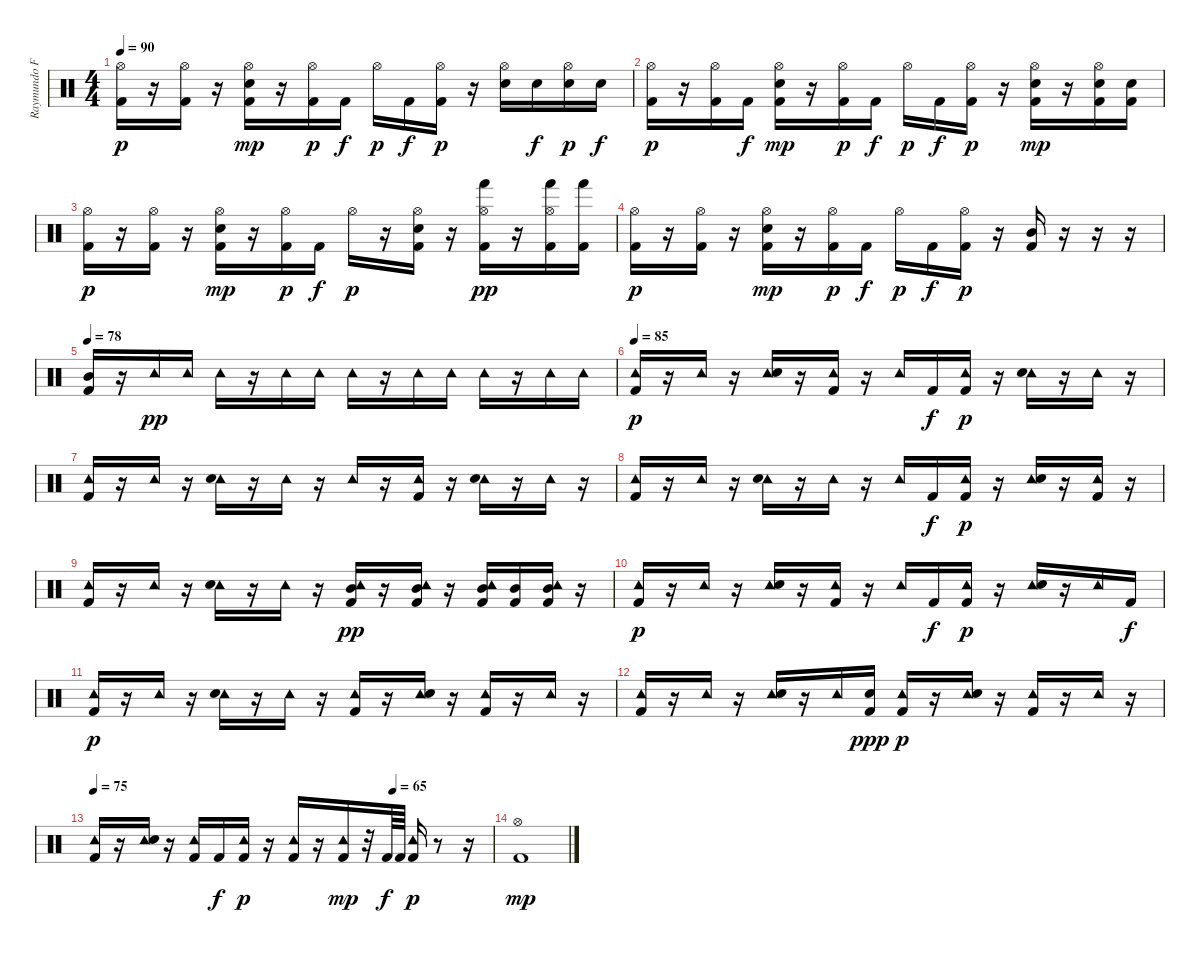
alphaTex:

\track ("Raymundo Fajardo (Bateria)" "Raymundo F") {instrument percussion}
\staff {score}
\articulation defaults
\ts (4 4)
\tempo 90
\clef neutral
\ks c
("Hi-Hat (open)" "Kick (hit) 2").16{dy p} r.16 ("Hi-Hat (open)" "Kick (hit) 2").16 r.16 ("Hi-Hat (open)" "Kick (hit) 2" "Electric Snare (hit)").16{dy mp} r.16 ("Hi-Hat (open)" "Kick (hit) 2").16{dy p} "Kick (hit) 2".16{dy f} "Hi-Hat (open)".16{dy p} "Kick (hit) 2".16{dy f} ("Hi-Hat (open)" "Kick (hit) 2").16{dy p} r.16 ("Hi-Hat (open)" "Electric Snare (hit)").16 "Electric Snare (hit)".16{dy f} ("Hi-Hat (open)" "Electric Snare (hit)").16{dy p} "Electric Snare (hit)".16{dy f} |
("Hi-Hat (open)" "Kick (hit) 2").16{dy p} r.16 ("Hi-Hat (open)" "Kick (hit) 2").16 "Kick (hit) 2".16{dy f} ("Hi-Hat (open)" "Kick (hit) 2" "Electric Snare (hit)").16{dy mp} r.16 ("Hi-Hat (open)" "Kick (hit) 2").16{dy p} "Kick (hit) 2".16{dy f} "Hi-Hat (open)".16{dy p} "Kick (hit) 2".16{dy f} ("Hi-Hat (open)" "Kick (hit) 2").16{dy p} r.16 ("Hi-Hat (open)" "Electric Snare (hit)" "Kick (hit) 2").16{dy mp} r.16 ("Hi-Hat (open)" "Electric Snare (hit)" "Kick (hit) 2").16 ("Electric Snare (hit)" "Kick (hit) 2").16 |
("Hi-Hat (open)" "Kick (hit) 2").16{dy p} r.16 ("Hi-Hat (open)" "Kick (hit) 2").16 r.16 ("Hi-Hat (open)" "Kick (hit) 2" "Electric Snare (hit)").16{dy mp} r.16 ("Hi-Hat (open)" "Kick (hit) 2").16{dy p} "Kick (hit) 2".16{dy f} "Hi-Hat (open)".16{dy p} r.16 ("Hi-Hat (open)" "Kick (hit) 2" "Electric Snare (hit)").16 r.16 ("Hi-Hat (open)" "Hand (hit)" "Kick (hit) 2").16{dy pp} r.16 ("Hi-Hat (open)" "Hand (hit)" "Kick (hit) 2").16 ("Hand (hit)" "Kick (hit) 2").16 |
("Hi-Hat (open)" "Kick (hit) 2").16{dy p} r.16 ("Hi-Hat (open)" "Kick (hit) 2").16 r.16 ("Hi-Hat (open)" "Kick (hit) 2" "Electric Snare (hit)").16{dy mp} r.16 ("Hi-Hat (open)" "Kick (hit) 2").16{dy p} "Kick (hit) 2".16{dy f} "Hi-Hat (open)".16{dy p} "Kick (hit) 2".16{dy f} ("Hi-Hat (open)" "Kick (hit) 2").16{dy p} r.16 ("Mid Tom (hit)" "Kick (hit) 2").16 r.16 r.16 r.16 |
\tempo 78
("Mid Tom (hit)" "Kick (hit) 2").16 r.16 "Tambourine (hit)".16{dy pp} "Tambourine (hit)".16 "Tambourine (hit)".16 r.16 "Tambourine (hit)".16 "Tambourine (hit)".16 "Tambourine (hit)".16 r.16 "Tambourine (hit)".16 "Tambourine (hit)".16 "Tambourine (hit)".16 r.16 "Tambourine (hit)".16 "Tambourine (hit)".16 |
\tempo 85
("Tambourine (hit)" "Kick (hit) 2").16{dy p} r.16 "Tambourine (hit)".16 r.16 ("Tambourine (hit)" "Electric Snare (hit)").16 r.16 ("Tambourine (hit)" "Kick (hit) 2").16 r.16 "Tambourine (hit)".16 "Kick (hit) 2".16{dy f} ("Tambourine (hit)" "Kick (hit) 2").16{dy p} r.16 ("Tambourine (hit)" "Electric Snare (hit)").16 r.16 "Tambourine (hit)".16 r.16 |
("Tambourine (hit)" "Kick (hit) 2").16 r.16 "Tambourine (hit)".16 r.16 ("Tambourine (hit)" "Electric Snare (hit)").16 r.16 "Tambourine (hit)".16 r.16 "Tambourine (hit)".16 r.16 ("Tambourine (hit)" "Kick (hit) 2").16 r.16 ("Tambourine (hit)" "Electric Snare (hit)").16 r.16 "Tambourine (hit)".16 r.16 |
("Tambourine (hit)" "Kick (hit) 2").16 r.16 "Tambourine (hit)".16 r.16 ("Tambourine (hit)" "Electric Snare (hit)").16 r.16 "Tambourine (hit)".16 r.16 "Tambourine (hit)".16 "Kick (hit) 2".16{dy f} ("Tambourine (hit)" "Kick (hit) 2").16{dy p} r.16 ("Tambourine (hit)" "Electric Snare (hit)").16 r.16 ("Tambourine (hit)" "Kick (hit) 2").16 r.16 |
("Tambourine (hit)" "Kick (hit) 2").16 r.16 "Tambourine (hit)".16 r.16 ("Tambourine (hit)" "Electric Snare (hit)").16 r.16 "Tambourine (hit)".16 r.16 ("Tambourine (hit)" "Kick (hit) 2" "Mid Tom (hit)").16{dy pp} r.16 ("Tambourine (hit)" "Kick (hit) 2" "Mid Tom (hit)").16 r.16 ("Tambourine (hit)" "Kick (hit) 2" "Mid Tom (hit)").16 ("Kick (hit) 2" "Mid Tom (hit)").16 ("Tambourine (hit)" "Kick (hit) 2" "Mid Tom (hit)").16 r.16 |
("Tambourine (hit)" "Kick (hit) 2").16{dy p} r.16 "Tambourine (hit)".16 r.16 ("Tambourine (hit)" "Electric Snare (hit)").16 r.16 ("Tambourine (hit)" "Kick (hit) 2").16 r.16 "Tambourine (hit)".16 "Kick (hit) 2".16{dy f} ("Tambourine (hit)" "Kick (hit) 2").16{dy p} r.16 ("Tambourine (hit)" "Electric Snare (hit)").16 r.16 "Tambourine (hit)".16 "Kick (hit) 2".16{dy f} |
("Tambourine (hit)" "Kick (hit) 2").16{dy p} r.16 "Tambourine (hit)".16 r.16 ("Tambourine (hit)" "Electric Snare (hit)").16 r.16 "Tambourine (hit)".16 r.16 ("Tambourine (hit)" "Kick (hit) 2").16 r.16 ("Tambourine (hit)" "Electric Snare (hit)").16 r.16 ("Tambourine (hit)" "Kick (hit) 2").16 r.16 "Tambourine (hit)".16 r.16 |
("Tambourine (hit)" "Kick (hit) 2").16 r.16 "Tambourine (hit)".16 r.16 ("Tambourine (hit)" "Electric Snare (hit)").16 r.16 "Tambourine (hit)".16 ("Kick (hit) 2" "Electric Snare (hit)").16{dy ppp} ("Tambourine (hit)" "Kick (hit) 2").16{dy p} r.16 ("Tambourine (hit)" "Electric Snare (hit)").16 r.16 ("Tambourine (hit)" "Kick (hit) 2").16 r.16 "Tambourine (hit)".16 r.16 |
\tempo 75
\tempo (65 0.75)
("Tambourine (hit)" "Kick (hit) 2").16 r.16 ("Tambourine (hit)" "Electric Snare (hit)").16 r.16 ("Tambourine (hit)" "Kick (hit) 2").16 "Kick (hit) 2".16{dy f} ("Tambourine (hit)" "Kick (hit) 2").16{dy p} r.16 ("Tambourine (hit)" "Kick (hit) 2").16 r.16 ("Tambourine (hit)" "Kick (hit) 2").16{dy mp} r.32 "Kick (hit) 2".64{dy f} "Kick (hit) 2".64 ("Tambourine (hit)" "Kick (hit) 2").16{dy p} r.8 r.16 |
("Hi-Hat (open)" "Kick (hit) 2").1{dy mp}
